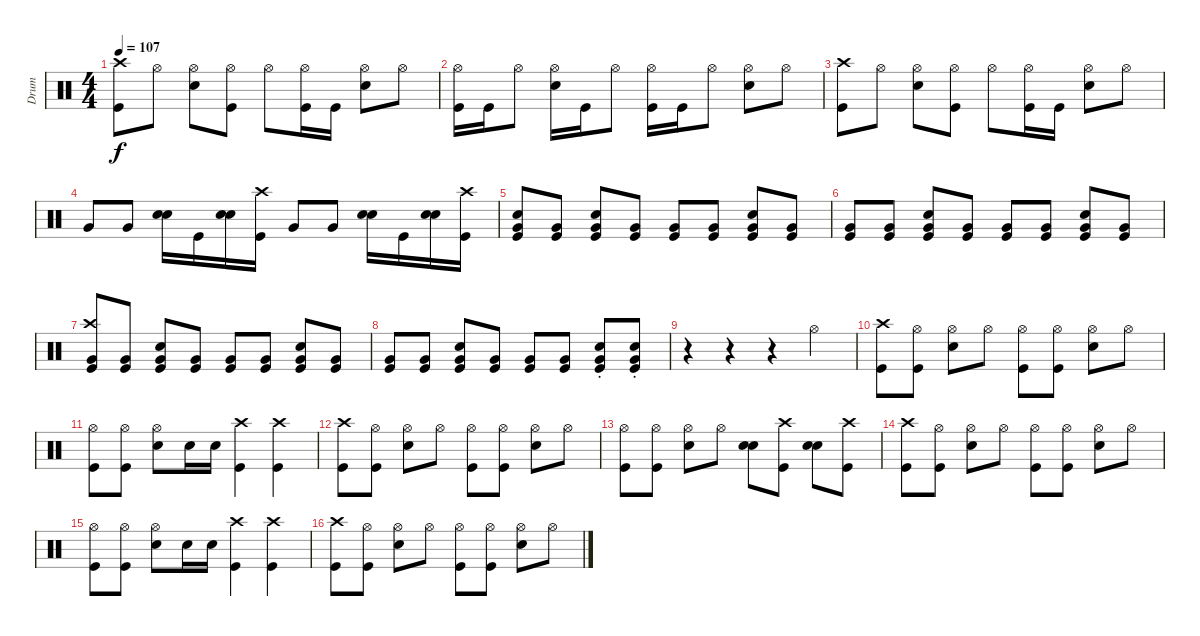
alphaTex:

\track ("Drum" "Drum") {instrument percussion}
\staff {score}
\articulation defaults
\ts (4 4)
\tempo 107
\clef neutral
\ks c
("Kick (hit)" "Crash high (hit)").8{dy f} "Hi-Hat (open)".8 ("Hi-Hat (open)" "Snare (hit) 2").8 ("Hi-Hat (open)" "Kick (hit)").8 "Hi-Hat (open)".8 ("Hi-Hat (open)" "Kick (hit)").16 "Kick (hit)".16 ("Snare (hit) 2" "Hi-Hat (open)").8 "Hi-Hat (open)".8 |
("Hi-Hat (open)" "Kick (hit)").16 "Kick (hit)".16 "Hi-Hat (open)".8 ("Hi-Hat (open)" "Snare (hit) 2").16 "Kick (hit)".16 "Hi-Hat (open)".8 ("Hi-Hat (open)" "Kick (hit)").16 "Kick (hit)".16 "Hi-Hat (open)".8 ("Hi-Hat (open)" "Snare (hit) 2").8 "Hi-Hat (open)".8 |
("Kick (hit)" "Crash high (hit)").8 "Hi-Hat (open)".8 ("Hi-Hat (open)" "Snare (hit) 2").8 ("Hi-Hat (open)" "Kick (hit)").8 "Hi-Hat (open)".8 ("Hi-Hat (open)" "Kick (hit)").16 "Kick (hit)".16 ("Snare (hit) 2" "Hi-Hat (open)").8 "Hi-Hat (open)".8 |
"Very Low Tom (hit)".8 "Very Low Tom (hit)".8 ("Snare (hit) 2" "Snare (hit) 2").16 "Kick (hit)".16 ("Snare (hit) 2" "Snare (hit) 2").16 ("Kick (hit)" "Crash high (hit)").16 "Very Low Tom (hit)".8 "Very Low Tom (hit)".8 ("Snare (hit) 2" "Snare (hit) 2").16 "Kick (hit)".16 ("Snare (hit) 2" "Snare (hit) 2").16 ("Kick (hit)" "Crash high (hit)").16 |
("Very Low Tom (hit)" "Kick (hit)" "Snare (hit) 2").8 ("Very Low Tom (hit)" "Kick (hit)").8 ("Very Low Tom (hit)" "Kick (hit)" "Snare (hit) 2").8 ("Very Low Tom (hit)" "Kick (hit)").8 ("Very Low Tom (hit)" "Kick (hit)").8 ("Very Low Tom (hit)" "Kick (hit)").8 ("Very Low Tom (hit)" "Kick (hit)" "Snare (hit) 2").8 ("Very Low Tom (hit)" "Kick (hit)").8 |
("Very Low Tom (hit)" "Kick (hit)").8 ("Very Low Tom (hit)" "Kick (hit)").8 ("Very Low Tom (hit)" "Kick (hit)" "Snare (hit) 2").8 ("Very Low Tom (hit)" "Kick (hit)").8 ("Very Low Tom (hit)" "Kick (hit)").8 ("Very Low Tom (hit)" "Kick (hit)").8 ("Very Low Tom (hit)" "Kick (hit)" "Snare (hit) 2").8 ("Very Low Tom (hit)" "Kick (hit)").8 |
("Very Low Tom (hit)" "Kick (hit)" "Crash high (hit)").8 ("Very Low Tom (hit)" "Kick (hit)").8 ("Very Low Tom (hit)" "Kick (hit)" "Snare (hit) 2").8 ("Very Low Tom (hit)" "Kick (hit)").8 ("Very Low Tom (hit)" "Kick (hit)").8 ("Very Low Tom (hit)" "Kick (hit)").8 ("Very Low Tom (hit)" "Kick (hit)" "Snare (hit) 2").8 ("Very Low Tom (hit)" "Kick (hit)").8 |
("Very Low Tom (hit)" "Kick (hit)").8 ("Very Low Tom (hit)" "Kick (hit)").8 ("Very Low Tom (hit)" "Kick (hit)" "Snare (hit) 2").8 ("Very Low Tom (hit)" "Kick (hit)").8 ("Very Low Tom (hit)" "Kick (hit)").8 ("Very Low Tom (hit)" "Kick (hit)").8 ("Very Low Tom (hit)"{st} "Kick (hit)"{st} "Snare (hit) 2"{st}).8 ("Very Low Tom (hit)"{st} "Kick (hit)"{st} "Snare (hit) 2"{st}).8 |
r.4 r.4 r.4 "Hi-Hat (open)".4 |
("Crash high (hit)" "Kick (hit)").8 ("Hi-Hat (open)" "Kick (hit)").8 ("Hi-Hat (open)" "Snare (hit) 2").8 "Hi-Hat (open)".8 ("Hi-Hat (open)" "Kick (hit)").8 ("Hi-Hat (open)" "Kick (hit)").8 ("Hi-Hat (open)" "Snare (hit) 2").8 "Hi-Hat (open)".8 |
("Hi-Hat (open)" "Kick (hit)").8 ("Hi-Hat (open)" "Kick (hit)").8 ("Hi-Hat (open)" "Snare (hit) 2").8 "Snare (hit) 2".16 "Snare (hit) 2".16 ("Crash high (hit)" "Kick (hit)").4 ("Crash high (hit)" "Kick (hit)").4 |
("Crash high (hit)" "Kick (hit)").8 ("Hi-Hat (open)" "Kick (hit)").8 ("Hi-Hat (open)" "Snare (hit) 2").8 "Hi-Hat (open)".8 ("Hi-Hat (open)" "Kick (hit)").8 ("Hi-Hat (open)" "Kick (hit)").8 ("Hi-Hat (open)" "Snare (hit) 2").8 "Hi-Hat (open)".8 |
("Hi-Hat (open)" "Kick (hit)").8 ("Hi-Hat (open)" "Kick (hit)").8 ("Hi-Hat (open)" "Snare (hit) 2").8 "Hi-Hat (open)".8 ("Snare (hit) 2" "Snare (hit) 2").8 ("Crash high (hit)" "Kick (hit)").8 ("Snare (hit) 2" "Snare (hit) 2").8 ("Crash high (hit)" "Kick (hit)").8 |
("Crash high (hit)" "Kick (hit)").8 ("Hi-Hat (open)" "Kick (hit)").8 ("Hi-Hat (open)" "Snare (hit) 2").8 "Hi-Hat (open)".8 ("Hi-Hat (open)" "Kick (hit)").8 ("Hi-Hat (open)" "Kick (hit)").8 ("Hi-Hat (open)" "Snare (hit) 2").8 "Hi-Hat (open)".8 |
("Hi-Hat (open)" "Kick (hit)").8 ("Hi-Hat (open)" "Kick (hit)").8 ("Hi-Hat (open)" "Snare (hit) 2").8 "Snare (hit) 2".16 "Snare (hit) 2".16 ("Crash high (hit)" "Kick (hit)").4 ("Crash high (hit)" "Kick (hit)").4 |
("Crash high (hit)" "Kick (hit)").8 ("Hi-Hat (open)" "Kick (hit)").8 ("Hi-Hat (open)" "Snare (hit) 2").8 "Hi-Hat (open)".8 ("Hi-Hat (open)" "Kick (hit)").8 ("Hi-Hat (open)" "Kick (hit)").8 ("Hi-Hat (open)" "Snare (hit) 2").8 "Hi-Hat (open)".8
